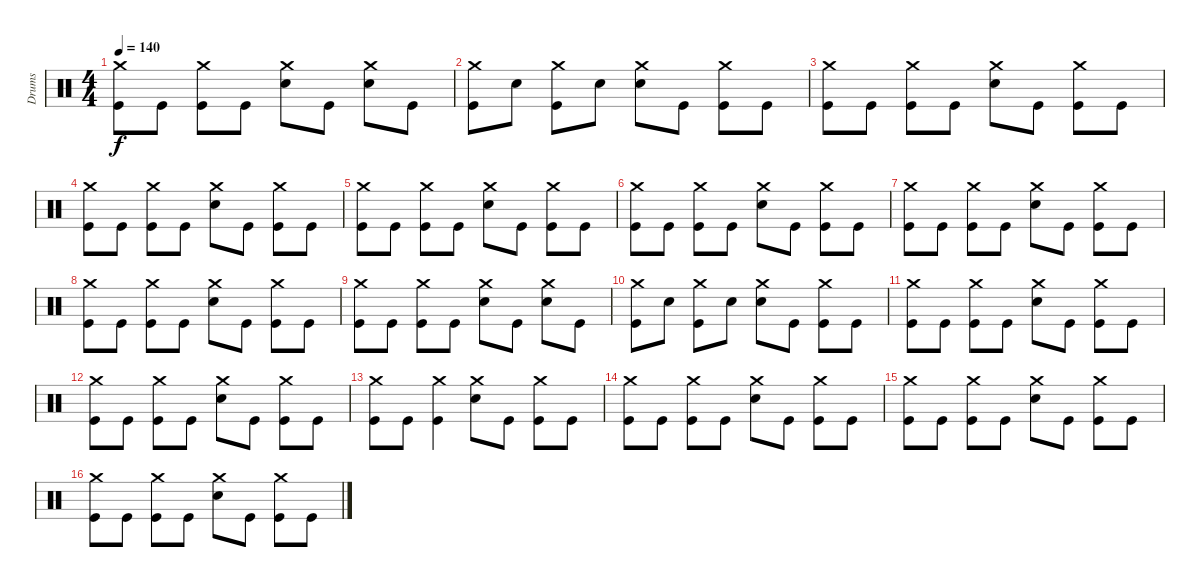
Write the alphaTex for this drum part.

\track ("Drums" "Drums") {instrument percussion}
\staff {score}
\articulation defaults
\ts (4 4)
\tempo 140
\clef neutral
\ks c
("Kick (hit)" "Crash medium (hit)").8{dy f} "Kick (hit)".8 ("Kick (hit)" "Crash medium (hit)").8 "Kick (hit)".8 ("Electric Snare (hit)" "Crash medium (hit)").8 "Kick (hit)".8 ("Electric Snare (hit)" "Crash medium (hit)").8 "Kick (hit)".8 |
("Kick (hit)" "Crash medium (hit)").8 "Electric Snare (hit)".8 ("Kick (hit)" "Crash medium (hit)").8 "Electric Snare (hit)".8 ("Electric Snare (hit)" "Crash medium (hit)").8 "Kick (hit)".8 ("Kick (hit)" "Crash medium (hit)").8 "Kick (hit)".8 |
("Crash medium (hit)" "Kick (hit)").8 "Kick (hit)".8 ("Crash medium (hit)" "Kick (hit)").8 "Kick (hit)".8 ("Crash medium (hit)" "Electric Snare (hit)").8 "Kick (hit)".8 ("Crash medium (hit)" "Kick (hit)").8 "Kick (hit)".8 |
("Kick (hit)" "Crash medium (hit)").8 "Kick (hit)".8 ("Kick (hit)" "Crash medium (hit)").8 "Kick (hit)".8 ("Electric Snare (hit)" "Crash medium (hit)").8 "Kick (hit)".8 ("Kick (hit)" "Crash medium (hit)").8 "Kick (hit)".8 |
("Kick (hit)" "Crash medium (hit)").8 "Kick (hit)".8 ("Kick (hit)" "Crash medium (hit)").8 "Kick (hit)".8 ("Electric Snare (hit)" "Crash medium (hit)").8 "Kick (hit)".8 ("Kick (hit)" "Crash medium (hit)").8 "Kick (hit)".8 |
("Kick (hit)" "Crash medium (hit)").8 "Kick (hit)".8 ("Kick (hit)" "Crash medium (hit)").8 "Kick (hit)".8 ("Electric Snare (hit)" "Crash medium (hit)").8 "Kick (hit)".8 ("Kick (hit)" "Crash medium (hit)").8 "Kick (hit)".8 |
("Kick (hit)" "Crash medium (hit)").8 "Kick (hit)".8 ("Kick (hit)" "Crash medium (hit)").8 "Kick (hit)".8 ("Electric Snare (hit)" "Crash medium (hit)").8 "Kick (hit)".8 ("Kick (hit)" "Crash medium (hit)").8 "Kick (hit)".8 |
("Crash medium (hit)" "Kick (hit)").8 "Kick (hit)".8 ("Crash medium (hit)" "Kick (hit)").8 "Kick (hit)".8 ("Crash medium (hit)" "Electric Snare (hit)").8 "Kick (hit)".8 ("Crash medium (hit)" "Kick (hit)").8 "Kick (hit)".8 |
("Crash medium (hit)" "Kick (hit)").8 "Kick (hit)".8 ("Crash medium (hit)" "Kick (hit)").8 "Kick (hit)".8 ("Crash medium (hit)" "Electric Snare (hit)").8 "Kick (hit)".8 ("Crash medium (hit)" "Electric Snare (hit)").8 "Kick (hit)".8 |
("Crash medium (hit)" "Kick (hit)").8 "Electric Snare (hit)".8 ("Crash medium (hit)" "Kick (hit)").8 "Electric Snare (hit)".8 ("Crash medium (hit)" "Electric Snare (hit)").8 "Kick (hit)".8 ("Crash medium (hit)" "Kick (hit)").8 "Kick (hit)".8 |
("Kick (hit)" "Crash medium (hit)").8 "Kick (hit)".8 ("Kick (hit)" "Crash medium (hit)").8 "Kick (hit)".8 ("Electric Snare (hit)" "Crash medium (hit)").8 "Kick (hit)".8 ("Crash medium (hit)" "Kick (hit)").8 "Kick (hit)".8 |
("Crash medium (hit)" "Kick (hit)").8 "Kick (hit)".8 ("Crash medium (hit)" "Kick (hit)").8 "Kick (hit)".8 ("Crash medium (hit)" "Electric Snare (hit)").8 "Kick (hit)".8 ("Crash medium (hit)" "Kick (hit)").8 "Kick (hit)".8 |
("Crash medium (hit)" "Kick (hit)").8 "Kick (hit)".8 ("Crash medium (hit)" "Kick (hit)").4 ("Crash medium (hit)" "Electric Snare (hit)").8 "Kick (hit)".8 ("Crash medium (hit)" "Kick (hit)").8 "Kick (hit)".8 |
("Crash medium (hit)" "Kick (hit)").8 "Kick (hit)".8 ("Crash medium (hit)" "Kick (hit)").8 "Kick (hit)".8 ("Crash medium (hit)" "Electric Snare (hit)").8 "Kick (hit)".8 ("Crash medium (hit)" "Kick (hit)").8 "Kick (hit)".8 |
("Crash medium (hit)" "Kick (hit)").8 "Kick (hit)".8 ("Crash medium (hit)" "Kick (hit)").8 "Kick (hit)".8 ("Crash medium (hit)" "Electric Snare (hit)").8 "Kick (hit)".8 ("Kick (hit)" "Crash medium (hit)").8 "Kick (hit)".8 |
("Kick (hit)" "Crash medium (hit)").8 "Kick (hit)".8 ("Kick (hit)" "Crash medium (hit)").8 "Kick (hit)".8 ("Electric Snare (hit)" "Crash medium (hit)").8 "Kick (hit)".8 ("Kick (hit)" "Crash medium (hit)").8 "Kick (hit)".8
